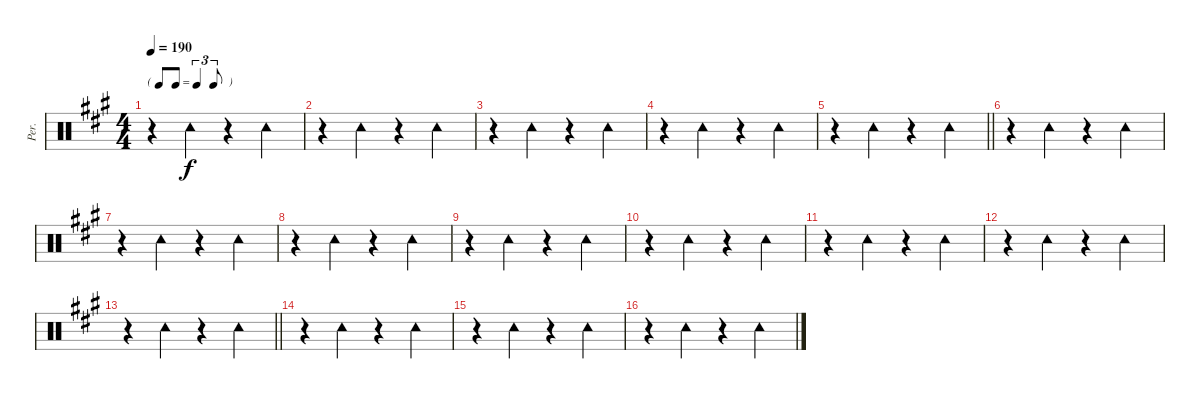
\track ("Per." "Per.") {instrument percussion}
\staff {score}
\articulation defaults
\ts (4 4)
\tf triplet8th
\tempo 190
\clef neutral
\ks a
r.4{dy f} "Tambourine (hit)".4 r.4 "Tambourine (hit)".4 |
r.4 "Tambourine (hit)".4 r.4 "Tambourine (hit)".4 |
r.4 "Tambourine (hit)".4 r.4 "Tambourine (hit)".4 |
r.4 "Tambourine (hit)".4 r.4 "Tambourine (hit)".4 |
\barLineRight lightlight
r.4 "Tambourine (hit)".4 r.4 "Tambourine (hit)".4 |
r.4 "Tambourine (hit)".4 r.4 "Tambourine (hit)".4 |
r.4 "Tambourine (hit)".4 r.4 "Tambourine (hit)".4 |
r.4 "Tambourine (hit)".4 r.4 "Tambourine (hit)".4 |
r.4 "Tambourine (hit)".4 r.4 "Tambourine (hit)".4 |
r.4 "Tambourine (hit)".4 r.4 "Tambourine (hit)".4 |
r.4 "Tambourine (hit)".4 r.4 "Tambourine (hit)".4 |
r.4 "Tambourine (hit)".4 r.4 "Tambourine (hit)".4 |
\barLineRight lightlight
r.4 "Tambourine (hit)".4 r.4 "Tambourine (hit)".4 |
r.4 "Tambourine (hit)".4 r.4 "Tambourine (hit)".4 |
r.4 "Tambourine (hit)".4 r.4 "Tambourine (hit)".4 |
r.4 "Tambourine (hit)".4 r.4 "Tambourine (hit)".4
